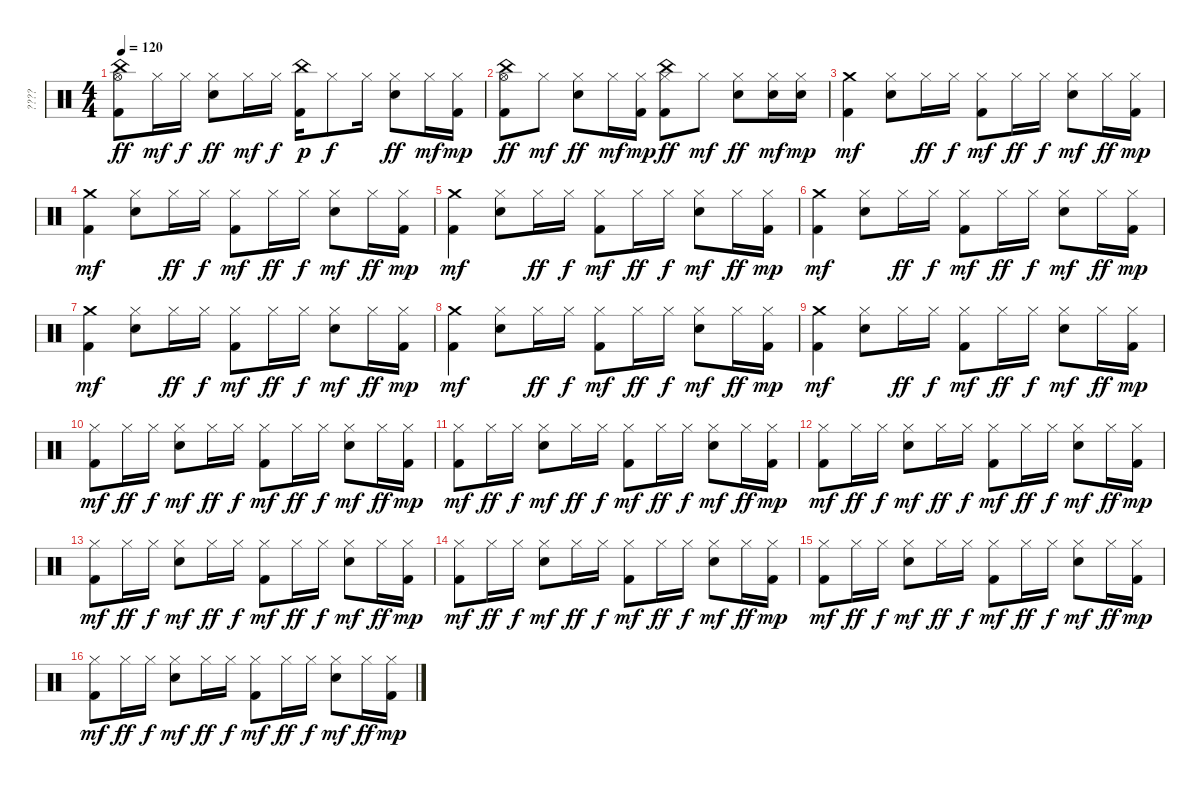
\track ("????" "????") {instrument percussion}
\staff {score}
\articulation defaults
\ts (4 4)
\tempo 120
\clef neutral
\ks c
("Kick (hit) 2" "China (hit)" "Hi-Hat (open)").8{dy ff} "Hi-Hat (closed)".16{dy mf} "Hi-Hat (closed)".16{dy f} ("Snare (hit) 2" "Hi-Hat (closed)").8{dy ff} "Hi-Hat (closed)".16{dy mf} "Hi-Hat (closed)".16{dy f} ("Kick (hit) 2" "China (hit)").16{dy p} "Hi-Hat (closed)".8{dy f} "Hi-Hat (closed)".16 ("Snare (hit) 2" "Hi-Hat (closed)").8{dy ff} "Hi-Hat (closed)".16{dy mf} ("Hi-Hat (closed)" "Kick (hit) 2").16{dy mp} |
("Kick (hit) 2" "China (hit)" "Hi-Hat (open)").8{dy ff} "Hi-Hat (closed)".8{dy mf} ("Snare (hit) 2" "Hi-Hat (closed)").8{dy ff} "Hi-Hat (closed)".16{dy mf} ("Hi-Hat (closed)" "Kick (hit) 2").16{dy mp} ("Kick (hit) 2" "China (hit)" "Hi-Hat (closed)").8{dy ff} "Hi-Hat (closed)".8{dy mf} ("Snare (hit) 2" "Hi-Hat (closed)").8{dy ff} ("Snare (hit) 2" "Hi-Hat (closed)").16{dy mf} ("Snare (hit) 2" "Hi-Hat (closed)").16{dy mp} |
("Kick (hit) 2" "Crash medium (hit)").4{dy mf} ("Hi-Hat (closed)" "Snare (hit) 2").8 "Hi-Hat (closed)".16{dy ff} "Hi-Hat (closed)".16{dy f} ("Hi-Hat (closed)" "Kick (hit) 2").8{dy mf} "Hi-Hat (closed)".16{dy ff} "Hi-Hat (closed)".16{dy f} ("Hi-Hat (closed)" "Snare (hit) 2").8{dy mf} "Hi-Hat (closed)".16{dy ff} ("Hi-Hat (closed)" "Kick (hit) 2").16{dy mp} |
("Kick (hit) 2" "Crash medium (hit)").4{dy mf} ("Hi-Hat (closed)" "Snare (hit) 2").8 "Hi-Hat (closed)".16{dy ff} "Hi-Hat (closed)".16{dy f} ("Hi-Hat (closed)" "Kick (hit) 2").8{dy mf} "Hi-Hat (closed)".16{dy ff} "Hi-Hat (closed)".16{dy f} ("Hi-Hat (closed)" "Snare (hit) 2").8{dy mf} "Hi-Hat (closed)".16{dy ff} ("Hi-Hat (closed)" "Kick (hit) 2").16{dy mp} |
("Kick (hit) 2" "Crash medium (hit)").4{dy mf} ("Hi-Hat (closed)" "Snare (hit) 2").8 "Hi-Hat (closed)".16{dy ff} "Hi-Hat (closed)".16{dy f} ("Hi-Hat (closed)" "Kick (hit) 2").8{dy mf} "Hi-Hat (closed)".16{dy ff} "Hi-Hat (closed)".16{dy f} ("Hi-Hat (closed)" "Snare (hit) 2").8{dy mf} "Hi-Hat (closed)".16{dy ff} ("Hi-Hat (closed)" "Kick (hit) 2").16{dy mp} |
("Kick (hit) 2" "Crash medium (hit)").4{dy mf} ("Hi-Hat (closed)" "Snare (hit) 2").8 "Hi-Hat (closed)".16{dy ff} "Hi-Hat (closed)".16{dy f} ("Hi-Hat (closed)" "Kick (hit) 2").8{dy mf} "Hi-Hat (closed)".16{dy ff} "Hi-Hat (closed)".16{dy f} ("Hi-Hat (closed)" "Snare (hit) 2").8{dy mf} "Hi-Hat (closed)".16{dy ff} ("Hi-Hat (closed)" "Kick (hit) 2").16{dy mp} |
("Kick (hit) 2" "Crash medium (hit)").4{dy mf} ("Hi-Hat (closed)" "Snare (hit) 2").8 "Hi-Hat (closed)".16{dy ff} "Hi-Hat (closed)".16{dy f} ("Hi-Hat (closed)" "Kick (hit) 2").8{dy mf} "Hi-Hat (closed)".16{dy ff} "Hi-Hat (closed)".16{dy f} ("Hi-Hat (closed)" "Snare (hit) 2").8{dy mf} "Hi-Hat (closed)".16{dy ff} ("Hi-Hat (closed)" "Kick (hit) 2").16{dy mp} |
("Kick (hit) 2" "Crash medium (hit)").4{dy mf} ("Hi-Hat (closed)" "Snare (hit) 2").8 "Hi-Hat (closed)".16{dy ff} "Hi-Hat (closed)".16{dy f} ("Hi-Hat (closed)" "Kick (hit) 2").8{dy mf} "Hi-Hat (closed)".16{dy ff} "Hi-Hat (closed)".16{dy f} ("Hi-Hat (closed)" "Snare (hit) 2").8{dy mf} "Hi-Hat (closed)".16{dy ff} ("Hi-Hat (closed)" "Kick (hit) 2").16{dy mp} |
("Kick (hit) 2" "Crash medium (hit)").4{dy mf} ("Hi-Hat (closed)" "Snare (hit) 2").8 "Hi-Hat (closed)".16{dy ff} "Hi-Hat (closed)".16{dy f} ("Hi-Hat (closed)" "Kick (hit) 2").8{dy mf} "Hi-Hat (closed)".16{dy ff} "Hi-Hat (closed)".16{dy f} ("Hi-Hat (closed)" "Snare (hit) 2").8{dy mf} "Hi-Hat (closed)".16{dy ff} ("Hi-Hat (closed)" "Kick (hit) 2").16{dy mp} |
("Hi-Hat (closed)" "Kick (hit) 2").8{dy mf} "Hi-Hat (closed)".16{dy ff} "Hi-Hat (closed)".16{dy f} ("Hi-Hat (closed)" "Snare (hit) 2").8{dy mf} "Hi-Hat (closed)".16{dy ff} "Hi-Hat (closed)".16{dy f} ("Hi-Hat (closed)" "Kick (hit) 2").8{dy mf} "Hi-Hat (closed)".16{dy ff} "Hi-Hat (closed)".16{dy f} ("Hi-Hat (closed)" "Snare (hit) 2").8{dy mf} "Hi-Hat (closed)".16{dy ff} ("Hi-Hat (closed)" "Kick (hit) 2").16{dy mp} |
("Hi-Hat (closed)" "Kick (hit) 2").8{dy mf} "Hi-Hat (closed)".16{dy ff} "Hi-Hat (closed)".16{dy f} ("Hi-Hat (closed)" "Snare (hit) 2").8{dy mf} "Hi-Hat (closed)".16{dy ff} "Hi-Hat (closed)".16{dy f} ("Hi-Hat (closed)" "Kick (hit) 2").8{dy mf} "Hi-Hat (closed)".16{dy ff} "Hi-Hat (closed)".16{dy f} ("Hi-Hat (closed)" "Snare (hit) 2").8{dy mf} "Hi-Hat (closed)".16{dy ff} ("Hi-Hat (closed)" "Kick (hit) 2").16{dy mp} |
("Hi-Hat (closed)" "Kick (hit) 2").8{dy mf} "Hi-Hat (closed)".16{dy ff} "Hi-Hat (closed)".16{dy f} ("Hi-Hat (closed)" "Snare (hit) 2").8{dy mf} "Hi-Hat (closed)".16{dy ff} "Hi-Hat (closed)".16{dy f} ("Hi-Hat (closed)" "Kick (hit) 2").8{dy mf} "Hi-Hat (closed)".16{dy ff} "Hi-Hat (closed)".16{dy f} ("Hi-Hat (closed)" "Snare (hit) 2").8{dy mf} "Hi-Hat (closed)".16{dy ff} ("Hi-Hat (closed)" "Kick (hit) 2").16{dy mp} |
("Hi-Hat (closed)" "Kick (hit) 2").8{dy mf} "Hi-Hat (closed)".16{dy ff} "Hi-Hat (closed)".16{dy f} ("Hi-Hat (closed)" "Snare (hit) 2").8{dy mf} "Hi-Hat (closed)".16{dy ff} "Hi-Hat (closed)".16{dy f} ("Hi-Hat (closed)" "Kick (hit) 2").8{dy mf} "Hi-Hat (closed)".16{dy ff} "Hi-Hat (closed)".16{dy f} ("Hi-Hat (closed)" "Snare (hit) 2").8{dy mf} "Hi-Hat (closed)".16{dy ff} ("Hi-Hat (closed)" "Kick (hit) 2").16{dy mp} |
("Hi-Hat (closed)" "Kick (hit) 2").8{dy mf} "Hi-Hat (closed)".16{dy ff} "Hi-Hat (closed)".16{dy f} ("Hi-Hat (closed)" "Snare (hit) 2").8{dy mf} "Hi-Hat (closed)".16{dy ff} "Hi-Hat (closed)".16{dy f} ("Hi-Hat (closed)" "Kick (hit) 2").8{dy mf} "Hi-Hat (closed)".16{dy ff} "Hi-Hat (closed)".16{dy f} ("Hi-Hat (closed)" "Snare (hit) 2").8{dy mf} "Hi-Hat (closed)".16{dy ff} ("Hi-Hat (closed)" "Kick (hit) 2").16{dy mp} |
("Hi-Hat (closed)" "Kick (hit) 2").8{dy mf} "Hi-Hat (closed)".16{dy ff} "Hi-Hat (closed)".16{dy f} ("Hi-Hat (closed)" "Snare (hit) 2").8{dy mf} "Hi-Hat (closed)".16{dy ff} "Hi-Hat (closed)".16{dy f} ("Hi-Hat (closed)" "Kick (hit) 2").8{dy mf} "Hi-Hat (closed)".16{dy ff} "Hi-Hat (closed)".16{dy f} ("Hi-Hat (closed)" "Snare (hit) 2").8{dy mf} "Hi-Hat (closed)".16{dy ff} ("Hi-Hat (closed)" "Kick (hit) 2").16{dy mp} |
("Hi-Hat (closed)" "Kick (hit) 2").8{dy mf} "Hi-Hat (closed)".16{dy ff} "Hi-Hat (closed)".16{dy f} ("Hi-Hat (closed)" "Snare (hit) 2").8{dy mf} "Hi-Hat (closed)".16{dy ff} "Hi-Hat (closed)".16{dy f} ("Hi-Hat (closed)" "Kick (hit) 2").8{dy mf} "Hi-Hat (closed)".16{dy ff} "Hi-Hat (closed)".16{dy f} ("Hi-Hat (closed)" "Snare (hit) 2").8{dy mf} "Hi-Hat (closed)".16{dy ff} ("Hi-Hat (closed)" "Kick (hit) 2").16{dy mp}
